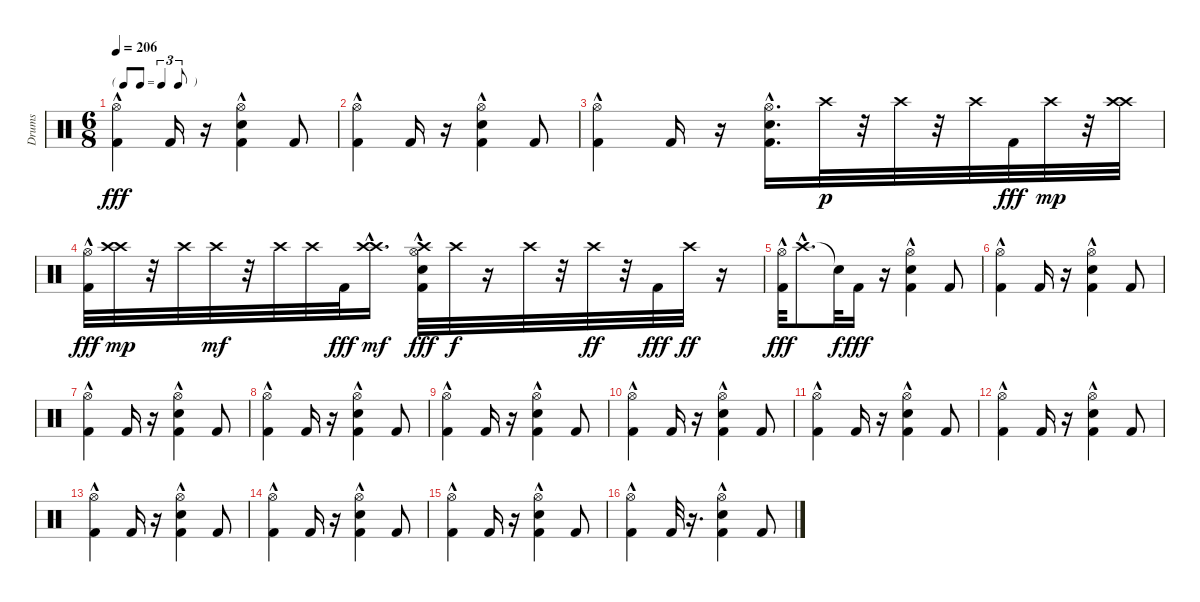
\track ("Drums" "Drums") {instrument percussion}
\staff {score}
\articulation defaults
\ts (6 8)
\tf triplet8th
\tempo 206
\clef neutral
\ks c
("Hi-Hat (open)" "Kick (hit) 2"{hac}).4{dy fff} "Kick (hit) 2".16 r.16 ("Hi-Hat (open)" "Snare (hit) 2"{hac} "Kick (hit) 2").4 "Kick (hit) 2".8 |
("Hi-Hat (open)" "Kick (hit) 2"{hac}).4 "Kick (hit) 2".16 r.16 ("Hi-Hat (open)" "Snare (hit) 2"{hac} "Kick (hit) 2").4 "Kick (hit) 2".8 |
("Hi-Hat (open)" "Kick (hit) 2"{hac}).4 "Kick (hit) 2".16 r.16 ("Hi-Hat (open)" "Snare (hit) 2"{hac} "Kick (hit) 2").16{d} "Crash high (hit)".32{dy p} r.32 "Crash high (hit)".32 r.32 "Crash high (hit)".32 "Kick (hit) 2".32{dy fff} "Crash high (hit)".32{dy mp} r.32 ("Crash high (hit)" "Crash high (hit)").32 |
("Hi-Hat (open)" "Kick (hit) 2"{hac}).32{dy fff} ("Crash high (hit)" "Crash high (hit)").32{dy mp} r.32 "Crash high (hit)".32 "Crash high (hit)".32{dy mf} r.32 "Crash high (hit)".32 "Crash high (hit)".32 "Kick (hit) 2".32{dy fff} ("Crash high (hit)"{hac} "Crash high (hit)").16{d dy mf} ("Crash high (hit)" "Hi-Hat (open)" "Snare (hit) 2"{hac} "Kick (hit) 2").32{dy fff} "Crash high (hit)".32{dy f} r.16 "Crash high (hit)".32 r.32 "Crash high (hit)".32{dy ff} r.32 "Kick (hit) 2".32{dy fff} "Crash high (hit)".32{dy ff} r.16 |
("Hi-Hat (open)" "Kick (hit) 2"{hac}).32{dy fff} "Crash high (hit)"{hac}.8{d} "Snare (hit)"{t}.32{dy f} "Kick (hit) 2".16{dy fff} r.16 ("Hi-Hat (open)" "Snare (hit) 2"{hac} "Kick (hit) 2").4 "Kick (hit) 2".8 |
("Hi-Hat (open)" "Kick (hit) 2"{hac}).4 "Kick (hit) 2".16 r.16 ("Hi-Hat (open)" "Snare (hit) 2"{hac} "Kick (hit) 2").4 "Kick (hit) 2".8 |
("Hi-Hat (open)" "Kick (hit) 2"{hac}).4 "Kick (hit) 2".16 r.16 ("Hi-Hat (open)" "Snare (hit) 2"{hac} "Kick (hit) 2").4 "Kick (hit) 2".8 |
("Hi-Hat (open)" "Kick (hit) 2"{hac}).4 "Kick (hit) 2".16 r.16 ("Hi-Hat (open)" "Snare (hit) 2"{hac} "Kick (hit) 2").4 "Kick (hit) 2".8 |
("Hi-Hat (open)" "Kick (hit) 2"{hac}).4 "Kick (hit) 2".16 r.16 ("Hi-Hat (open)" "Snare (hit) 2"{hac} "Kick (hit) 2").4 "Kick (hit) 2".8 |
("Hi-Hat (open)" "Kick (hit) 2"{hac}).4 "Kick (hit) 2".16 r.16 ("Hi-Hat (open)" "Snare (hit) 2"{hac} "Kick (hit) 2").4 "Kick (hit) 2".8 |
("Hi-Hat (open)" "Kick (hit) 2"{hac}).4 "Kick (hit) 2".16 r.16 ("Hi-Hat (open)" "Snare (hit) 2"{hac} "Kick (hit) 2").4 "Kick (hit) 2".8 |
("Hi-Hat (open)" "Kick (hit) 2"{hac}).4 "Kick (hit) 2".16 r.16 ("Hi-Hat (open)" "Snare (hit) 2"{hac} "Kick (hit) 2").4 "Kick (hit) 2".8 |
("Hi-Hat (open)" "Kick (hit) 2"{hac}).4 "Kick (hit) 2".16 r.16 ("Hi-Hat (open)" "Snare (hit) 2"{hac} "Kick (hit) 2").4 "Kick (hit) 2".8 |
("Hi-Hat (open)" "Kick (hit) 2"{hac}).4 "Kick (hit) 2".16 r.16 ("Hi-Hat (open)" "Snare (hit) 2"{hac} "Kick (hit) 2").4 "Kick (hit) 2".8 |
("Hi-Hat (open)" "Kick (hit) 2"{hac}).4 "Kick (hit) 2".16 r.16 ("Hi-Hat (open)" "Snare (hit) 2"{hac} "Kick (hit) 2").4 "Kick (hit) 2".8 |
("Hi-Hat (open)" "Kick (hit) 2"{hac}).4 "Kick (hit) 2".32 r.16{d} ("Hi-Hat (open)" "Snare (hit) 2"{hac} "Kick (hit) 2").4 "Kick (hit) 2".8
